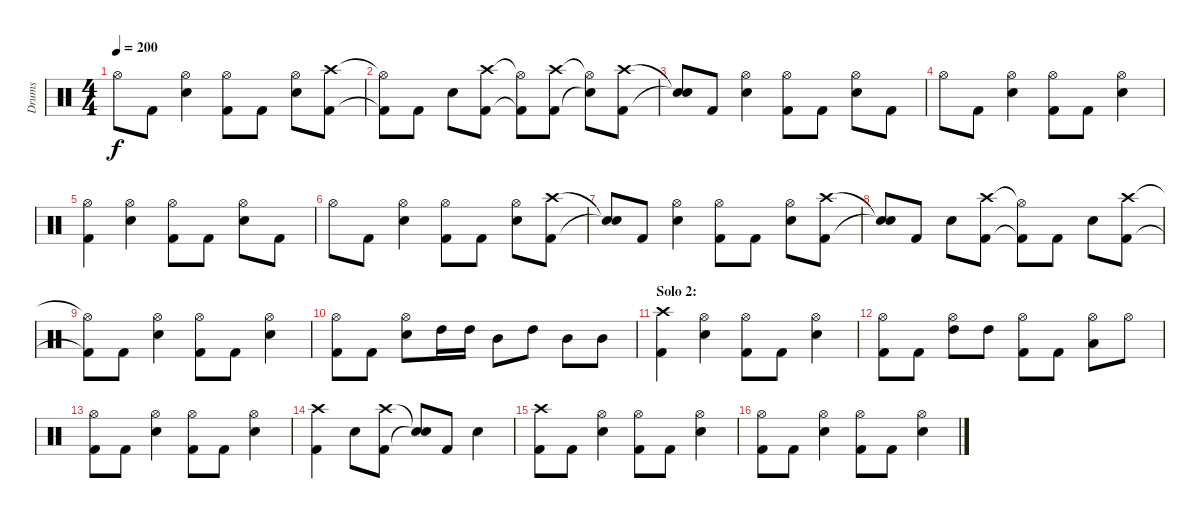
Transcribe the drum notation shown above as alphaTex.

\track ("Drums" "Drums") {instrument percussion}
\staff {score}
\articulation defaults
\ts (4 4)
\tempo 200
\clef neutral
\ks c "Hi-Hat (open)".8{dy f} "Kick (hit) 2".8
("Hi-Hat (open)" "Electric Snare (hit)").4 ("Hi-Hat (open)" "Kick (hit) 2").8 "Kick (hit) 2".8 ("Hi-Hat (open)" "Electric Snare (hit)").8 ("Crash high (hit)" "Kick (hit) 2").8 |
("Hi-Hat (open)"{t} "Kick (hit) 2"{t}).8 "Kick (hit) 2".8 "Electric Snare (hit)".8 ("Crash high (hit)" "Kick (hit) 2").8 ("Hi-Hat (open)"{t} "Kick (hit) 2"{t}).8 ("Crash high (hit)" "Kick (hit) 2").8 ("Hi-Hat (open)"{t} "Snare (hit)"{t}).8 ("Crash high (hit)" "Kick (hit) 2").8 |
("Snare (hit)"{t} "Snare (hit)"{t}).8 "Kick (hit) 2".8 ("Hi-Hat (open)" "Electric Snare (hit)").4 ("Hi-Hat (open)" "Kick (hit) 2").8 "Kick (hit) 2".8 ("Hi-Hat (open)" "Electric Snare (hit)").8 "Kick (hit) 2".8 |
"Hi-Hat (open)".8 "Kick (hit) 2".8 ("Hi-Hat (open)" "Electric Snare (hit)").4 ("Hi-Hat (open)" "Kick (hit) 2").8 "Kick (hit) 2".8 ("Hi-Hat (open)" "Electric Snare (hit)").4 |
("Hi-Hat (open)" "Kick (hit) 2").4 ("Hi-Hat (open)" "Electric Snare (hit)").4 ("Hi-Hat (open)" "Kick (hit) 2").8 "Kick (hit) 2".8 ("Hi-Hat (open)" "Electric Snare (hit)").8 "Kick (hit) 2".8 |
"Hi-Hat (open)".8 "Kick (hit) 2".8 ("Hi-Hat (open)" "Electric Snare (hit)").4 ("Hi-Hat (open)" "Kick (hit) 2").8 "Kick (hit) 2".8 ("Hi-Hat (open)" "Electric Snare (hit)").8 ("Crash high (hit)" "Kick (hit) 2").8 |
("Snare (hit)"{t} "Snare (hit)"{t}).8 "Kick (hit) 2".8 ("Hi-Hat (open)" "Electric Snare (hit)").4 ("Hi-Hat (open)" "Kick (hit) 2").8 "Kick (hit) 2".8 ("Hi-Hat (open)" "Electric Snare (hit)").8 ("Crash high (hit)" "Kick (hit) 2").8 |
("Snare (hit)"{t} "Snare (hit)"{t}).8 "Kick (hit) 2".8 "Electric Snare (hit)".8 ("Crash high (hit)" "Kick (hit) 2").8 ("Hi-Hat (open)"{t} "Kick (hit) 2"{t}).8 "Kick (hit) 2".8 "Electric Snare (hit)".8 ("Crash high (hit)" "Kick (hit) 2").8 |
("Hi-Hat (open)"{t} "Kick (hit) 2"{t}).8 "Kick (hit) 2".8 ("Hi-Hat (open)" "Electric Snare (hit)").4 ("Hi-Hat (open)" "Kick (hit) 2").8 "Kick (hit) 2".8 ("Hi-Hat (open)" "Electric Snare (hit)").4 |
("Hi-Hat (open)" "Kick (hit) 2").8 "Kick (hit) 2".8 ("Hi-Hat (open)" "Electric Snare (hit)").8 "High Tom (hit)".16 "High Tom (hit)".16 "Mid Tom (hit)".8 "High Tom (hit)".8 "Mid Tom (hit)".8 "Mid Tom (hit)".8 |
\section ("" "Solo 2:")
("Crash high (hit)" "Kick (hit) 2").4 ("Hi-Hat (open)" "Electric Snare (hit)").4 ("Hi-Hat (open)" "Kick (hit) 2").8 "Kick (hit) 2".8 ("Hi-Hat (open)" "Electric Snare (hit)").4 |
("Hi-Hat (open)" "Kick (hit) 2").8 "Kick (hit) 2".8 ("Hi-Hat (open)" "High Tom (hit)").8 "High Tom (hit)".8 ("Hi-Hat (open)" "Kick (hit) 2").8 "Kick (hit) 2".8 ("Hi-Hat (open)" "Low Tom (hit)").8 "Hi-Hat (open)".8 |
("Hi-Hat (open)" "Kick (hit) 2").8 "Kick (hit) 2".8 ("Hi-Hat (open)" "Electric Snare (hit)").4 ("Hi-Hat (open)" "Kick (hit) 2").8 "Kick (hit) 2".8 ("Hi-Hat (open)" "Electric Snare (hit)").4 |
("Crash high (hit)" "Kick (hit) 2").4 "Electric Snare (hit)".8 ("Crash high (hit)" "Kick (hit) 2").8 ("Snare (hit)"{t} "Snare (hit)"{t}).8 "Kick (hit) 2".8 "Electric Snare (hit)".4 |
("Crash high (hit)" "Kick (hit) 2").8 "Kick (hit) 2".8 ("Hi-Hat (open)" "Electric Snare (hit)").4 ("Hi-Hat (open)" "Kick (hit) 2").8 "Kick (hit) 2".8 ("Hi-Hat (open)" "Electric Snare (hit)").4 |
("Hi-Hat (open)" "Kick (hit) 2").8 "Kick (hit) 2".8 ("Hi-Hat (open)" "Electric Snare (hit)").4 ("Hi-Hat (open)" "Kick (hit) 2").8 "Kick (hit) 2".8 ("Hi-Hat (open)" "Electric Snare (hit)").4
